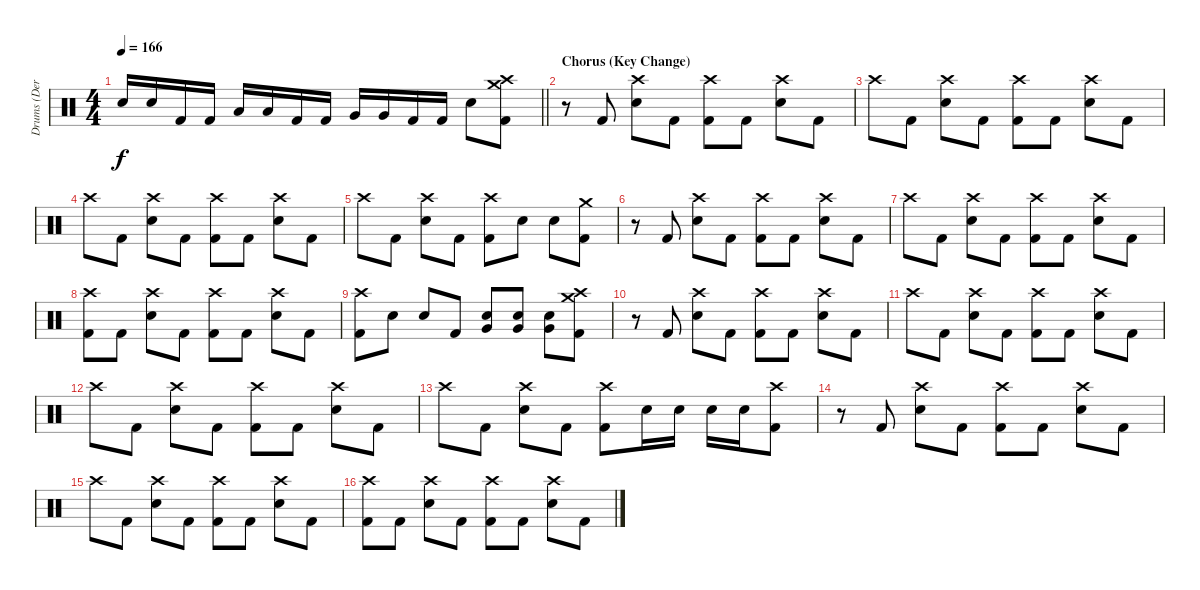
\track ("Drums (Derek)" "Drums (Der") {instrument percussion}
\staff {score}
\articulation defaults
\ts (4 4)
\tempo 166
\clef neutral
\barLineRight lightlight
\ks c "Electric Snare (hit)".16{dy f} "Electric Snare (hit)".16 "Kick (hit) 2".16 "Kick (hit) 2".16 "Low Tom (hit)".16 "Low Tom (hit)".16 "Kick (hit) 2".16 "Kick (hit) 2".16 "Very Low Tom (hit)".16 "Very Low Tom (hit)".16 "Kick (hit) 2".16 "Kick (hit) 2".16 "Electric Snare (hit)".8
("Crash high (hit)" "Crash medium (hit)" "Kick (hit) 2").8 |
\section ("" "Chorus (Key Change)")
r.8 "Kick (hit) 2".8 ("Crash high (hit)" "Electric Snare (hit)").8 "Kick (hit) 2".8 ("Crash high (hit)" "Kick (hit) 2").8 "Kick (hit) 2".8 ("Crash high (hit)" "Electric Snare (hit)").8 "Kick (hit) 2".8 |
"Crash high (hit)".8 "Kick (hit) 2".8 ("Crash high (hit)" "Electric Snare (hit)").8 "Kick (hit) 2".8 ("Crash high (hit)" "Kick (hit) 2").8 "Kick (hit) 2".8 ("Crash high (hit)" "Electric Snare (hit)").8 "Kick (hit) 2".8 |
"Crash high (hit)".8 "Kick (hit) 2".8 ("Crash high (hit)" "Electric Snare (hit)").8 "Kick (hit) 2".8 ("Crash high (hit)" "Kick (hit) 2").8 "Kick (hit) 2".8 ("Crash high (hit)" "Electric Snare (hit)").8 "Kick (hit) 2".8 |
"Crash high (hit)".8 "Kick (hit) 2".8 ("Crash high (hit)" "Electric Snare (hit)").8 "Kick (hit) 2".8 ("Crash high (hit)" "Kick (hit) 2").8 "Electric Snare (hit)".8 "Electric Snare (hit)".8 ("Crash medium (hit)" "Kick (hit) 2").8 |
r.8 "Kick (hit) 2".8 ("Crash high (hit)" "Electric Snare (hit)").8 "Kick (hit) 2".8 ("Crash high (hit)" "Kick (hit) 2").8 "Kick (hit) 2".8 ("Crash high (hit)" "Electric Snare (hit)").8 "Kick (hit) 2".8 |
"Crash high (hit)".8 "Kick (hit) 2".8 ("Crash high (hit)" "Electric Snare (hit)").8 "Kick (hit) 2".8 ("Crash high (hit)" "Kick (hit) 2").8 "Kick (hit) 2".8 ("Crash high (hit)" "Electric Snare (hit)").8 "Kick (hit) 2".8 |
("Crash high (hit)" "Kick (hit) 2").8 "Kick (hit) 2".8 ("Crash high (hit)" "Electric Snare (hit)").8 "Kick (hit) 2".8 ("Crash high (hit)" "Kick (hit) 2").8 "Kick (hit) 2".8 ("Crash high (hit)" "Electric Snare (hit)").8 "Kick (hit) 2".8 |
("Crash high (hit)" "Kick (hit) 2").8 "Electric Snare (hit)".8 "Electric Snare (hit)".8 "Kick (hit) 2".8 ("Very Low Tom (hit)" "Electric Snare (hit)").8 ("Very Low Tom (hit)" "Electric Snare (hit)").8 ("Very Low Tom (hit)" "Electric Snare (hit)").8 ("Crash high (hit)" "Crash medium (hit)" "Kick (hit) 2").8 |
r.8 "Kick (hit) 2".8 ("Crash high (hit)" "Electric Snare (hit)").8 "Kick (hit) 2".8 ("Crash high (hit)" "Kick (hit) 2").8 "Kick (hit) 2".8 ("Crash high (hit)" "Electric Snare (hit)").8 "Kick (hit) 2".8 |
"Crash high (hit)".8 "Kick (hit) 2".8 ("Crash high (hit)" "Electric Snare (hit)").8 "Kick (hit) 2".8 ("Crash high (hit)" "Kick (hit) 2").8 "Kick (hit) 2".8 ("Crash high (hit)" "Electric Snare (hit)").8 "Kick (hit) 2".8 |
"Crash high (hit)".8 "Kick (hit) 2".8 ("Crash high (hit)" "Electric Snare (hit)").8 "Kick (hit) 2".8 ("Crash high (hit)" "Kick (hit) 2").8 "Kick (hit) 2".8 ("Crash high (hit)" "Electric Snare (hit)").8 "Kick (hit) 2".8 |
"Crash high (hit)".8 "Kick (hit) 2".8 ("Crash high (hit)" "Electric Snare (hit)").8 "Kick (hit) 2".8 ("Crash high (hit)" "Kick (hit) 2").8 "Electric Snare (hit)".16 "Electric Snare (hit)".16 "Electric Snare (hit)".16 "Electric Snare (hit)".16 ("Crash high (hit)" "Kick (hit) 2").8 |
r.8 "Kick (hit) 2".8 ("Crash high (hit)" "Electric Snare (hit)").8 "Kick (hit) 2".8 ("Crash high (hit)" "Kick (hit) 2").8 "Kick (hit) 2".8 ("Crash high (hit)" "Electric Snare (hit)").8 "Kick (hit) 2".8 |
"Crash high (hit)".8 "Kick (hit) 2".8 ("Crash high (hit)" "Electric Snare (hit)").8 "Kick (hit) 2".8 ("Crash high (hit)" "Kick (hit) 2").8 "Kick (hit) 2".8 ("Crash high (hit)" "Electric Snare (hit)").8 "Kick (hit) 2".8 |
("Crash high (hit)" "Kick (hit) 2").8 "Kick (hit) 2".8 ("Crash high (hit)" "Electric Snare (hit)").8 "Kick (hit) 2".8 ("Crash high (hit)" "Kick (hit) 2").8 "Kick (hit) 2".8 ("Crash high (hit)" "Electric Snare (hit)").8 "Kick (hit) 2".8
